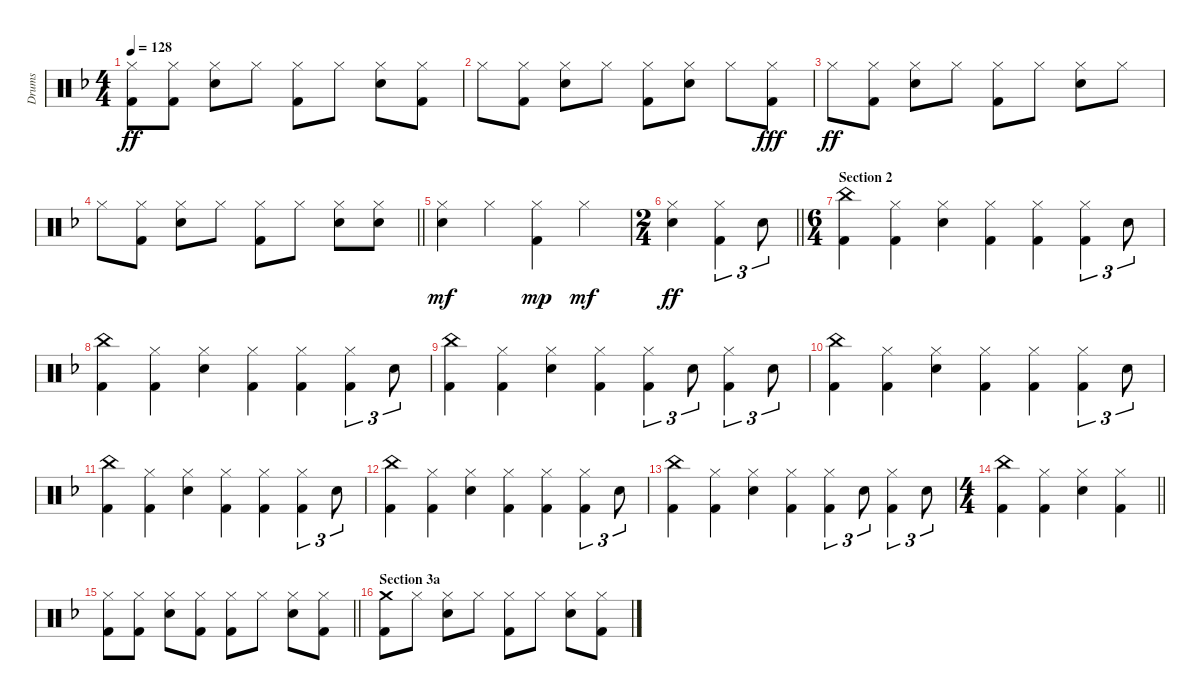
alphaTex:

\track ("Drums" "Drums") {instrument percussion}
\staff {score}
\articulation defaults
\ts (4 4)
\tempo 128
\clef neutral
\ks f
("Hi-Hat (closed)" "Kick (hit) 2").8{dy ff} ("Hi-Hat (closed)" "Kick (hit) 2").8 ("Hi-Hat (closed)" "Snare (hit) 2").8 "Hi-Hat (closed)".8 ("Hi-Hat (closed)" "Kick (hit) 2").8 "Hi-Hat (closed)".8 ("Hi-Hat (closed)" "Snare (hit) 2").8 ("Hi-Hat (closed)" "Kick (hit) 2").8 |
"Hi-Hat (closed)".8 ("Hi-Hat (closed)" "Kick (hit) 2").8 ("Hi-Hat (closed)" "Snare (hit) 2").8 "Hi-Hat (closed)".8 ("Hi-Hat (closed)" "Kick (hit) 2").8 ("Hi-Hat (closed)" "Snare (hit) 2").8 "Hi-Hat (closed)".8 ("Hi-Hat (closed)" "Kick (hit) 2").8{dy fff} |
"Hi-Hat (closed)".8{dy ff} ("Hi-Hat (closed)" "Kick (hit) 2").8 ("Hi-Hat (closed)" "Snare (hit) 2").8 "Hi-Hat (closed)".8 ("Hi-Hat (closed)" "Kick (hit) 2").8 "Hi-Hat (closed)".8 ("Hi-Hat (closed)" "Snare (hit) 2").8 "Hi-Hat (closed)".8 |
\barLineRight lightlight "Hi-Hat (closed)".8
("Hi-Hat (closed)" "Kick (hit) 2").8 ("Hi-Hat (closed)" "Snare (hit) 2").8 "Hi-Hat (closed)".8 ("Hi-Hat (closed)" "Kick (hit) 2").8 "Hi-Hat (closed)".8 ("Hi-Hat (closed)" "Snare (hit) 2").8 ("Hi-Hat (closed)" "Snare (hit) 2").8 |
\section ("" "")
("Hi-Hat (closed)" "Snare (hit) 2").4{dy mf} "Hi-Hat (closed)".4 ("Hi-Hat (closed)" "Kick (hit) 2").4{dy mp} "Hi-Hat (closed)".4{dy mf} |
\ts (2 4)
\barLineRight lightlight
("Hi-Hat (closed)" "Snare (hit) 2").4{dy ff} ("Hi-Hat (closed)" "Kick (hit) 2").4{tu (3 2)} "Snare (hit) 2".8{tu (3 2)} |
\ts (6 4)
\section ("" "Section 2")
("China (hit)" "Kick (hit) 2").4 ("Hi-Hat (closed)" "Kick (hit) 2").4 ("Hi-Hat (closed)" "Snare (hit) 2").4 ("Hi-Hat (closed)" "Kick (hit) 2").4 ("Hi-Hat (closed)" "Kick (hit) 2").4 ("Hi-Hat (closed)" "Kick (hit) 2").4{tu (3 2)} "Snare (hit) 2".8{tu (3 2)} |
("China (hit)" "Kick (hit) 2").4 ("Hi-Hat (closed)" "Kick (hit) 2").4 ("Hi-Hat (closed)" "Snare (hit) 2").4 ("Hi-Hat (closed)" "Kick (hit) 2").4 ("Hi-Hat (closed)" "Kick (hit) 2").4 ("Hi-Hat (closed)" "Kick (hit) 2").4{tu (3 2)} "Snare (hit) 2".8{tu (3 2)} |
("China (hit)" "Kick (hit) 2").4 ("Hi-Hat (closed)" "Kick (hit) 2").4 ("Hi-Hat (closed)" "Snare (hit) 2").4 ("Hi-Hat (closed)" "Kick (hit) 2").4 ("Hi-Hat (closed)" "Kick (hit) 2").4{tu (3 2)} "Snare (hit) 2".8{tu (3 2)} ("Hi-Hat (closed)" "Kick (hit) 2").4{tu (3 2)} "Snare (hit) 2".8{tu (3 2)} |
("China (hit)" "Kick (hit) 2").4 ("Hi-Hat (closed)" "Kick (hit) 2").4 ("Hi-Hat (closed)" "Snare (hit) 2").4 ("Hi-Hat (closed)" "Kick (hit) 2").4 ("Hi-Hat (closed)" "Kick (hit) 2").4 ("Hi-Hat (closed)" "Kick (hit) 2").4{tu (3 2)} "Snare (hit) 2".8{tu (3 2)} |
("China (hit)" "Kick (hit) 2").4 ("Hi-Hat (closed)" "Kick (hit) 2").4 ("Hi-Hat (closed)" "Snare (hit) 2").4 ("Hi-Hat (closed)" "Kick (hit) 2").4 ("Hi-Hat (closed)" "Kick (hit) 2").4 ("Hi-Hat (closed)" "Kick (hit) 2").4{tu (3 2)} "Snare (hit) 2".8{tu (3 2)} |
("China (hit)" "Kick (hit) 2").4 ("Hi-Hat (closed)" "Kick (hit) 2").4 ("Hi-Hat (closed)" "Snare (hit) 2").4 ("Hi-Hat (closed)" "Kick (hit) 2").4 ("Hi-Hat (closed)" "Kick (hit) 2").4 ("Hi-Hat (closed)" "Kick (hit) 2").4{tu (3 2)} "Snare (hit) 2".8{tu (3 2)} |
("China (hit)" "Kick (hit) 2").4 ("Hi-Hat (closed)" "Kick (hit) 2").4 ("Hi-Hat (closed)" "Snare (hit) 2").4 ("Hi-Hat (closed)" "Kick (hit) 2").4 ("Hi-Hat (closed)" "Kick (hit) 2").4{tu (3 2)} "Snare (hit) 2".8{tu (3 2)} ("Hi-Hat (closed)" "Kick (hit) 2").4{tu (3 2)} "Snare (hit) 2".8{tu (3 2)} |
\ts (4 4)
\barLineRight lightlight
("China (hit)" "Kick (hit) 2").4 ("Hi-Hat (closed)" "Kick (hit) 2").4 ("Hi-Hat (closed)" "Snare (hit) 2").4 ("Hi-Hat (closed)" "Kick (hit) 2").4 |
\section ("" "")
\barLineRight lightlight
("Hi-Hat (closed)" "Kick (hit) 2").8 ("Hi-Hat (closed)" "Kick (hit) 2").8 ("Hi-Hat (closed)" "Snare (hit) 2").8 ("Hi-Hat (closed)" "Kick (hit) 2").8 ("Hi-Hat (closed)" "Kick (hit) 2").8 "Hi-Hat (closed)".8 ("Hi-Hat (closed)" "Snare (hit) 2").8 ("Hi-Hat (closed)" "Kick (hit) 2").8 |
\section ("" "Section 3a")
("Crash medium (hit)" "Kick (hit) 2").8{volume 7} "Hi-Hat (closed)".8 ("Hi-Hat (closed)" "Snare (hit) 2").8 "Hi-Hat (closed)".8 ("Hi-Hat (closed)" "Kick (hit) 2").8 "Hi-Hat (closed)".8 ("Hi-Hat (closed)" "Snare (hit) 2").8 ("Hi-Hat (closed)" "Kick (hit) 2").8
